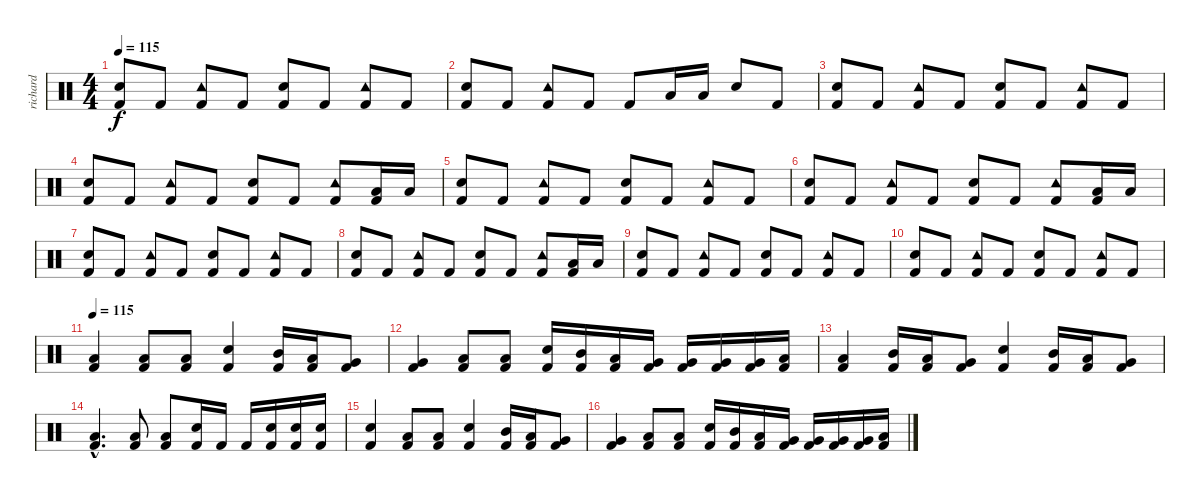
\track ("richard" "richard") {instrument percussion}
\staff {score}
\articulation defaults
\ts (4 4)
\tempo 115
\clef neutral
\ks c
("Snare (hit) 2" "Kick (hit) 2").8{dy f} "Kick (hit) 2".8 ("Tambourine (hit)" "Kick (hit) 2").8 "Kick (hit) 2".8 ("Snare (hit) 2" "Kick (hit) 2").8 "Kick (hit) 2".8 ("Tambourine (hit)" "Kick (hit) 2").8 "Kick (hit) 2".8 |
("Snare (hit) 2" "Kick (hit) 2").8 "Kick (hit) 2".8 ("Tambourine (hit)" "Kick (hit) 2").8 "Kick (hit) 2".8 "Kick (hit) 2".8 "Low Tom (hit)".16 "Low Tom (hit)".16 "Snare (hit) 2".8 "Kick (hit) 2".8 |
("Snare (hit) 2" "Kick (hit) 2").8 "Kick (hit) 2".8 ("Tambourine (hit)" "Kick (hit) 2").8 "Kick (hit) 2".8 ("Snare (hit) 2" "Kick (hit) 2").8 "Kick (hit) 2".8 ("Tambourine (hit)" "Kick (hit) 2").8 "Kick (hit) 2".8 |
("Snare (hit) 2" "Kick (hit) 2").8 "Kick (hit) 2".8 ("Tambourine (hit)" "Kick (hit) 2").8 "Kick (hit) 2".8 ("Snare (hit) 2" "Kick (hit) 2").8 "Kick (hit) 2".8 ("Tambourine (hit)" "Kick (hit) 2").8 ("Low Tom (hit)" "Kick (hit) 2").16 "Low Tom (hit)".16 |
("Snare (hit) 2" "Kick (hit) 2").8 "Kick (hit) 2".8 ("Tambourine (hit)" "Kick (hit) 2").8 "Kick (hit) 2".8 ("Snare (hit) 2" "Kick (hit) 2").8 "Kick (hit) 2".8 ("Tambourine (hit)" "Kick (hit) 2").8 "Kick (hit) 2".8 |
("Snare (hit) 2" "Kick (hit) 2").8 "Kick (hit) 2".8 ("Tambourine (hit)" "Kick (hit) 2").8 "Kick (hit) 2".8 ("Snare (hit) 2" "Kick (hit) 2").8 "Kick (hit) 2".8 ("Tambourine (hit)" "Kick (hit) 2").8 ("Low Tom (hit)" "Kick (hit) 2").16 "Low Tom (hit)".16 |
("Snare (hit) 2" "Kick (hit) 2").8 "Kick (hit) 2".8 ("Tambourine (hit)" "Kick (hit) 2").8 "Kick (hit) 2".8 ("Snare (hit) 2" "Kick (hit) 2").8 "Kick (hit) 2".8 ("Tambourine (hit)" "Kick (hit) 2").8 "Kick (hit) 2".8 |
("Snare (hit) 2" "Kick (hit) 2").8 "Kick (hit) 2".8 ("Tambourine (hit)" "Kick (hit) 2").8 "Kick (hit) 2".8 ("Snare (hit) 2" "Kick (hit) 2").8 "Kick (hit) 2".8 ("Tambourine (hit)" "Kick (hit) 2").8 ("Low Tom (hit)" "Kick (hit) 2").16 "Low Tom (hit)".16 |
("Snare (hit) 2" "Kick (hit) 2").8 "Kick (hit) 2".8 ("Tambourine (hit)" "Kick (hit) 2").8 "Kick (hit) 2".8 ("Snare (hit) 2" "Kick (hit) 2").8 "Kick (hit) 2".8 ("Tambourine (hit)" "Kick (hit) 2").8 "Kick (hit) 2".8 |
("Snare (hit) 2" "Kick (hit) 2").8 "Kick (hit) 2".8 ("Tambourine (hit)" "Kick (hit) 2").8 "Kick (hit) 2".8 ("Snare (hit) 2" "Kick (hit) 2").8 "Kick (hit) 2".8 ("Tambourine (hit)" "Kick (hit) 2").8 "Kick (hit) 2".8 |
\tempo 115
("Low Tom (hit)" "Kick (hit) 2").4 ("Low Tom (hit)" "Kick (hit) 2").8 ("Low Tom (hit)" "Kick (hit) 2").8 ("Electric Snare (hit)" "Kick (hit) 2").4 ("Mid Tom (hit)" "Kick (hit) 2").16 ("Low Tom (hit)" "Kick (hit) 2").16 ("Very Low Tom (hit)" "Kick (hit) 2").8 |
("Very Low Tom (hit)" "Kick (hit) 2").4 ("Low Tom (hit)" "Kick (hit) 2").8 ("Low Tom (hit)" "Kick (hit) 2").8 ("Snare (hit) 2" "Kick (hit) 2").16 ("Mid Tom (hit)" "Kick (hit) 2").16 ("Low Tom (hit)" "Kick (hit) 2").16 ("Very Low Tom (hit)" "Kick (hit) 2").16 ("Very Low Tom (hit)" "Kick (hit) 2").16 ("Very Low Tom (hit)" "Kick (hit) 2").16 ("Very Low Tom (hit)" "Kick (hit) 2").16 ("Low Tom (hit)" "Kick (hit) 2").16 |
("Low Tom (hit)" "Kick (hit) 2").4 ("Mid Tom (hit)" "Kick (hit) 2").16 ("Low Tom (hit)" "Kick (hit) 2").16 ("Very Low Tom (hit)" "Kick (hit) 2").8 ("Electric Snare (hit)" "Kick (hit) 2").4 ("Mid Tom (hit)" "Kick (hit) 2").16 ("Low Tom (hit)" "Kick (hit) 2").16 ("Very Low Tom (hit)" "Kick (hit) 2").8 |
("Low Tom (hit)"{hac} "Kick (hit) 2"{hac}).4{d} ("Low Tom (hit)" "Kick (hit) 2").8 ("Low Tom (hit)" "Kick (hit) 2").8 ("Electric Snare (hit)" "Kick (hit) 2").16 "Kick (hit) 2".16 "Kick (hit) 2".16 ("Electric Snare (hit)" "Kick (hit) 2").16 ("Electric Snare (hit)" "Kick (hit) 2").16 ("Electric Snare (hit)" "Kick (hit) 2").16 |
("Electric Snare (hit)" "Kick (hit) 2").4 ("Low Tom (hit)" "Kick (hit) 2").8 ("Low Tom (hit)" "Kick (hit) 2").8 ("Electric Snare (hit)" "Kick (hit) 2").4 ("Mid Tom (hit)" "Kick (hit) 2").16 ("Low Tom (hit)" "Kick (hit) 2").16 ("Very Low Tom (hit)" "Kick (hit) 2").8 |
("Very Low Tom (hit)" "Kick (hit) 2").4 ("Low Tom (hit)" "Kick (hit) 2").8 ("Low Tom (hit)" "Kick (hit) 2").8 ("Snare (hit) 2" "Kick (hit) 2").16 ("Mid Tom (hit)" "Kick (hit) 2").16 ("Low Tom (hit)" "Kick (hit) 2").16 ("Very Low Tom (hit)" "Kick (hit) 2").16 ("Very Low Tom (hit)" "Kick (hit) 2").16 ("Very Low Tom (hit)" "Kick (hit) 2").16 ("Very Low Tom (hit)" "Kick (hit) 2").16 ("Low Tom (hit)" "Kick (hit) 2").16
